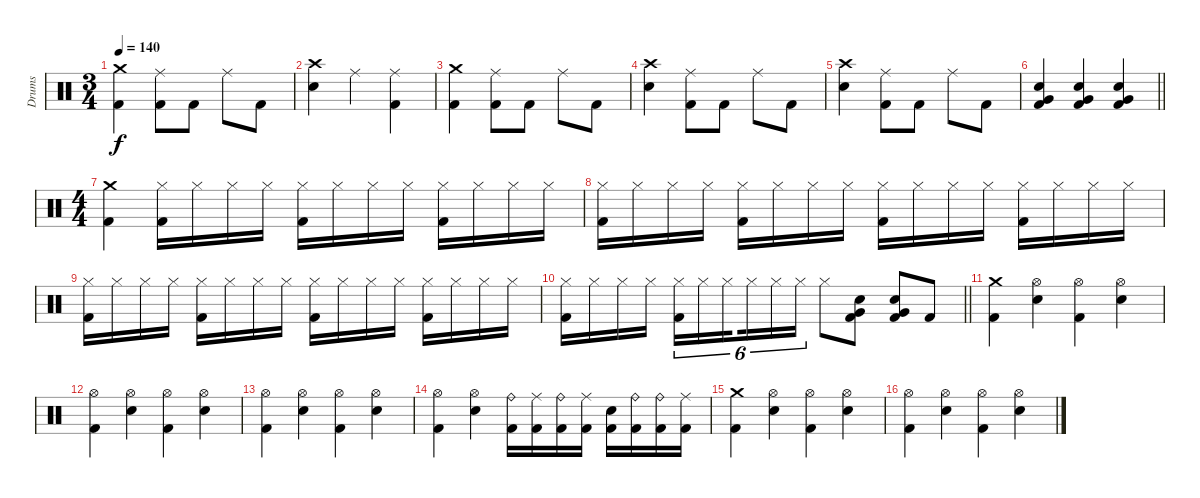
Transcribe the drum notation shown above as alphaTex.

\track ("Drums" "Drums") {instrument percussion}
\staff {score}
\articulation defaults
\ts (3 4)
\tempo 140
\clef neutral
\ks c
("Crash medium (hit)" "Kick (hit) 2").4{dy f} ("Ride (middle)" "Kick (hit) 2").8 "Kick (hit) 2".8 "Ride (middle)".8 "Kick (hit) 2".8 |
("Crash high (hit)" "Electric Snare (hit)").4 "Ride (middle)".4 ("Ride (middle)" "Kick (hit) 2").4 |
("Crash medium (hit)" "Kick (hit) 2").4 ("Ride (middle)" "Kick (hit) 2").8 "Kick (hit) 2".8 "Ride (middle)".8 "Kick (hit) 2".8 |
("Crash high (hit)" "Electric Snare (hit)").4 ("Ride (middle)" "Kick (hit) 2").8 "Kick (hit) 2".8 "Ride (middle)".8 "Kick (hit) 2".8 |
("Crash high (hit)" "Electric Snare (hit)").4 ("Ride (middle)" "Kick (hit) 2").8 "Kick (hit) 2".8 "Ride (middle)".8 "Kick (hit) 2".8 |
\barLineRight lightlight
("Very Low Tom (hit)" "Electric Snare (hit)" "Kick (hit) 2").4 ("Very Low Tom (hit)" "Electric Snare (hit)" "Kick (hit) 2").4 ("Very Low Tom (hit)" "Electric Snare (hit)" "Kick (hit) 2").4 |
\ts (4 4)
("Crash medium (hit)" "Kick (hit) 2").4 ("Hi-Hat (closed)" "Kick (hit) 2").16 "Hi-Hat (closed)".16 "Hi-Hat (closed)".16 "Hi-Hat (closed)".16 ("Hi-Hat (closed)" "Kick (hit) 2").16 "Hi-Hat (closed)".16 "Hi-Hat (closed)".16 "Hi-Hat (closed)".16 ("Hi-Hat (closed)" "Kick (hit) 2").16 "Hi-Hat (closed)".16 "Hi-Hat (closed)".16 "Hi-Hat (closed)".16 |
("Hi-Hat (closed)" "Kick (hit) 2").16 "Hi-Hat (closed)".16 "Hi-Hat (closed)".16 "Hi-Hat (closed)".16 ("Hi-Hat (closed)" "Kick (hit) 2").16 "Hi-Hat (closed)".16 "Hi-Hat (closed)".16 "Hi-Hat (closed)".16 ("Hi-Hat (closed)" "Kick (hit) 2").16 "Hi-Hat (closed)".16 "Hi-Hat (closed)".16 "Hi-Hat (closed)".16 ("Hi-Hat (closed)" "Kick (hit) 2").16 "Hi-Hat (closed)".16 "Hi-Hat (closed)".16 "Hi-Hat (closed)".16 |
("Hi-Hat (closed)" "Kick (hit) 2").16 "Hi-Hat (closed)".16 "Hi-Hat (closed)".16 "Hi-Hat (closed)".16 ("Hi-Hat (closed)" "Kick (hit) 2").16 "Hi-Hat (closed)".16 "Hi-Hat (closed)".16 "Hi-Hat (closed)".16 ("Hi-Hat (closed)" "Kick (hit) 2").16 "Hi-Hat (closed)".16 "Hi-Hat (closed)".16 "Hi-Hat (closed)".16 ("Hi-Hat (closed)" "Kick (hit) 2").16 "Hi-Hat (closed)".16 "Hi-Hat (closed)".16 "Hi-Hat (closed)".16 |
\barLineRight lightlight
("Hi-Hat (closed)" "Kick (hit) 2").16 "Hi-Hat (closed)".16 "Hi-Hat (closed)".16 "Hi-Hat (closed)".16 ("Hi-Hat (closed)" "Kick (hit) 2").16{tu (6 4)} "Hi-Hat (closed)".16{tu (6 4)} "Hi-Hat (closed)".16{tu (6 4) beam splitsecondary} "Hi-Hat (closed)".16{tu (6 4)} "Hi-Hat (closed)".16{tu (6 4)} "Hi-Hat (closed)".16{tu (6 4)} "Hi-Hat (closed)".8 ("Very Low Tom (hit)" "Electric Snare (hit)" "Kick (hit) 2").8 ("Very Low Tom (hit)" "Electric Snare (hit)" "Kick (hit) 2").8 "Kick (hit) 2".8 |
("Crash medium (hit)" "Kick (hit) 2").4 ("Hi-Hat (open)" "Electric Snare (hit)").4 ("Hi-Hat (open)" "Kick (hit) 2").4 ("Hi-Hat (open)" "Electric Snare (hit)").4 |
("Hi-Hat (open)" "Kick (hit) 2").4 ("Hi-Hat (open)" "Electric Snare (hit)").4 ("Hi-Hat (open)" "Kick (hit) 2").4 ("Hi-Hat (open)" "Electric Snare (hit)").4 |
("Hi-Hat (open)" "Kick (hit) 2").4 ("Hi-Hat (open)" "Electric Snare (hit)").4 ("Hi-Hat (open)" "Kick (hit) 2").4 ("Hi-Hat (open)" "Electric Snare (hit)").4 |
("Hi-Hat (open)" "Kick (hit) 2").4 ("Hi-Hat (open)" "Electric Snare (hit)").4 ("Ride (bell)" "Kick (hit) 2").16 ("Ride (middle)" "Kick (hit) 2").16 ("Ride (bell)" "Kick (hit) 2").16 ("Ride (middle)" "Kick (hit) 2").16 ("Electric Snare (hit)" "Kick (hit) 2").16 ("Ride (bell)" "Kick (hit) 2").16 ("Ride (bell)" "Kick (hit) 2").16 ("Ride (middle)" "Kick (hit) 2").16 |
("Crash medium (hit)" "Kick (hit) 2").4 ("Hi-Hat (open)" "Electric Snare (hit)").4 ("Hi-Hat (open)" "Kick (hit) 2").4 ("Hi-Hat (open)" "Electric Snare (hit)").4 |
("Hi-Hat (open)" "Kick (hit) 2").4 ("Hi-Hat (open)" "Electric Snare (hit)").4 ("Hi-Hat (open)" "Kick (hit) 2").4 ("Hi-Hat (open)" "Electric Snare (hit)").4
